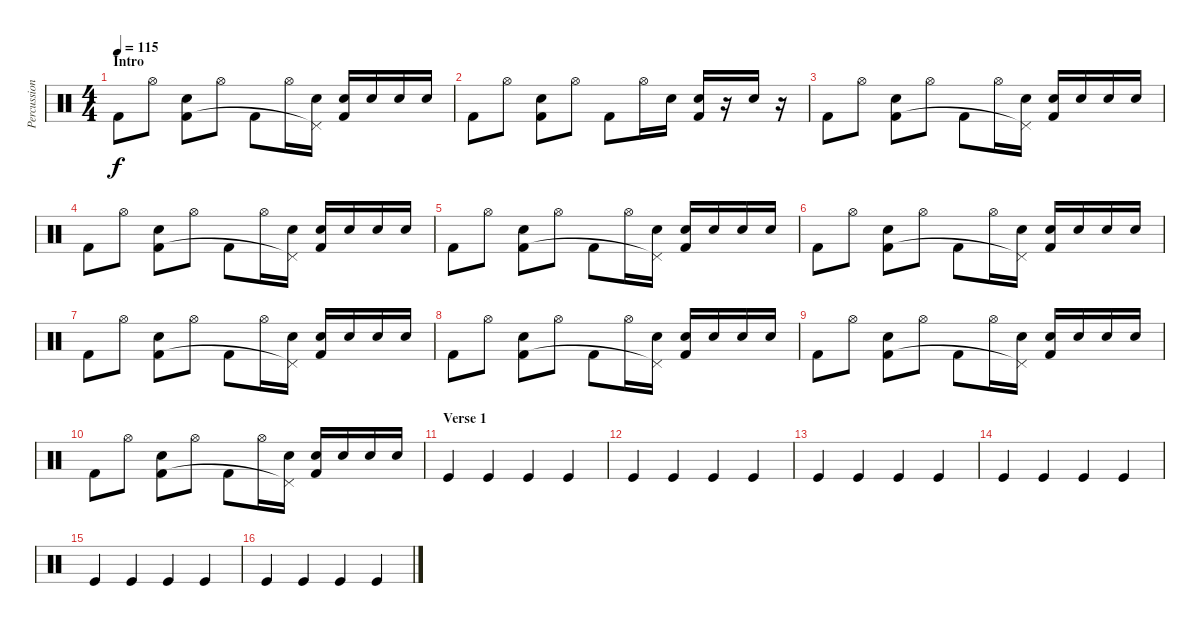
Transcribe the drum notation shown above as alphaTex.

\track ("Percussion" "Percussion") {instrument percussion}
\staff {score}
\articulation defaults
\ts (4 4)
\section ("" "Intro")
\tempo 115
\clef neutral
\ks c "Kick (hit) 2".8{dy f} "Hi-Hat (open)".8
("Electric Snare (hit)" "Kick (hit) 2").8 "Hi-Hat (open)".8 "Kick (hit) 2".8 "Hi-Hat (open)".16 ("Electric Snare (hit)" "Pedal Hi-Hat (hit)"{t}).16 ("Electric Snare (hit)" "Kick (hit) 2").16 "Electric Snare (hit)".16 "Electric Snare (hit)".16 "Electric Snare (hit)".16 |
"Kick (hit) 2".8 "Hi-Hat (open)".8 ("Electric Snare (hit)" "Kick (hit) 2").8 "Hi-Hat (open)".8 "Kick (hit) 2".8 "Hi-Hat (open)".16 "Electric Snare (hit)".16 ("Electric Snare (hit)" "Kick (hit) 2").16 r.16 "Electric Snare (hit)".16 r.16 |
"Kick (hit) 2".8 "Hi-Hat (open)".8 ("Electric Snare (hit)" "Kick (hit) 2").8 "Hi-Hat (open)".8 "Kick (hit) 2".8 "Hi-Hat (open)".16 ("Electric Snare (hit)" "Pedal Hi-Hat (hit)"{t}).16 ("Electric Snare (hit)" "Kick (hit) 2").16 "Electric Snare (hit)".16 "Electric Snare (hit)".16 "Electric Snare (hit)".16 |
"Kick (hit) 2".8 "Hi-Hat (open)".8 ("Electric Snare (hit)" "Kick (hit) 2").8 "Hi-Hat (open)".8 "Kick (hit) 2".8 "Hi-Hat (open)".16 ("Electric Snare (hit)" "Pedal Hi-Hat (hit)"{t}).16 ("Electric Snare (hit)" "Kick (hit) 2").16 "Electric Snare (hit)".16 "Electric Snare (hit)".16 "Electric Snare (hit)".16 |
"Kick (hit) 2".8 "Hi-Hat (open)".8 ("Electric Snare (hit)" "Kick (hit) 2").8 "Hi-Hat (open)".8 "Kick (hit) 2".8 "Hi-Hat (open)".16 ("Electric Snare (hit)" "Pedal Hi-Hat (hit)"{t}).16 ("Electric Snare (hit)" "Kick (hit) 2").16 "Electric Snare (hit)".16 "Electric Snare (hit)".16 "Electric Snare (hit)".16 |
"Kick (hit) 2".8 "Hi-Hat (open)".8 ("Electric Snare (hit)" "Kick (hit) 2").8 "Hi-Hat (open)".8 "Kick (hit) 2".8 "Hi-Hat (open)".16 ("Electric Snare (hit)" "Pedal Hi-Hat (hit)"{t}).16 ("Electric Snare (hit)" "Kick (hit) 2").16 "Electric Snare (hit)".16 "Electric Snare (hit)".16 "Electric Snare (hit)".16 |
"Kick (hit) 2".8 "Hi-Hat (open)".8 ("Electric Snare (hit)" "Kick (hit) 2").8 "Hi-Hat (open)".8 "Kick (hit) 2".8 "Hi-Hat (open)".16 ("Electric Snare (hit)" "Pedal Hi-Hat (hit)"{t}).16 ("Electric Snare (hit)" "Kick (hit) 2").16 "Electric Snare (hit)".16 "Electric Snare (hit)".16 "Electric Snare (hit)".16 |
"Kick (hit) 2".8 "Hi-Hat (open)".8 ("Electric Snare (hit)" "Kick (hit) 2").8 "Hi-Hat (open)".8 "Kick (hit) 2".8 "Hi-Hat (open)".16 ("Electric Snare (hit)" "Pedal Hi-Hat (hit)"{t}).16 ("Electric Snare (hit)" "Kick (hit) 2").16 "Electric Snare (hit)".16 "Electric Snare (hit)".16 "Electric Snare (hit)".16 |
"Kick (hit) 2".8 "Hi-Hat (open)".8 ("Electric Snare (hit)" "Kick (hit) 2").8 "Hi-Hat (open)".8 "Kick (hit) 2".8 "Hi-Hat (open)".16 ("Electric Snare (hit)" "Pedal Hi-Hat (hit)"{t}).16 ("Electric Snare (hit)" "Kick (hit) 2").16 "Electric Snare (hit)".16 "Electric Snare (hit)".16 "Electric Snare (hit)".16 |
"Kick (hit) 2".8 "Hi-Hat (open)".8 ("Electric Snare (hit)" "Kick (hit) 2").8 "Hi-Hat (open)".8 "Kick (hit) 2".8 "Hi-Hat (open)".16 ("Electric Snare (hit)" "Pedal Hi-Hat (hit)"{t}).16 ("Electric Snare (hit)" "Kick (hit) 2").16 "Electric Snare (hit)".16 "Electric Snare (hit)".16 "Electric Snare (hit)".16 |
\section ("" "Verse 1")
"Kick (hit)".4 "Kick (hit)".4 "Kick (hit)".4 "Kick (hit)".4 |
"Kick (hit)".4 "Kick (hit)".4 "Kick (hit)".4 "Kick (hit)".4 |
"Kick (hit)".4 "Kick (hit)".4 "Kick (hit)".4 "Kick (hit)".4 |
"Kick (hit)".4 "Kick (hit)".4 "Kick (hit)".4 "Kick (hit)".4 |
"Kick (hit)".4 "Kick (hit)".4 "Kick (hit)".4 "Kick (hit)".4 |
"Kick (hit)".4 "Kick (hit)".4 "Kick (hit)".4 "Kick (hit)".4
